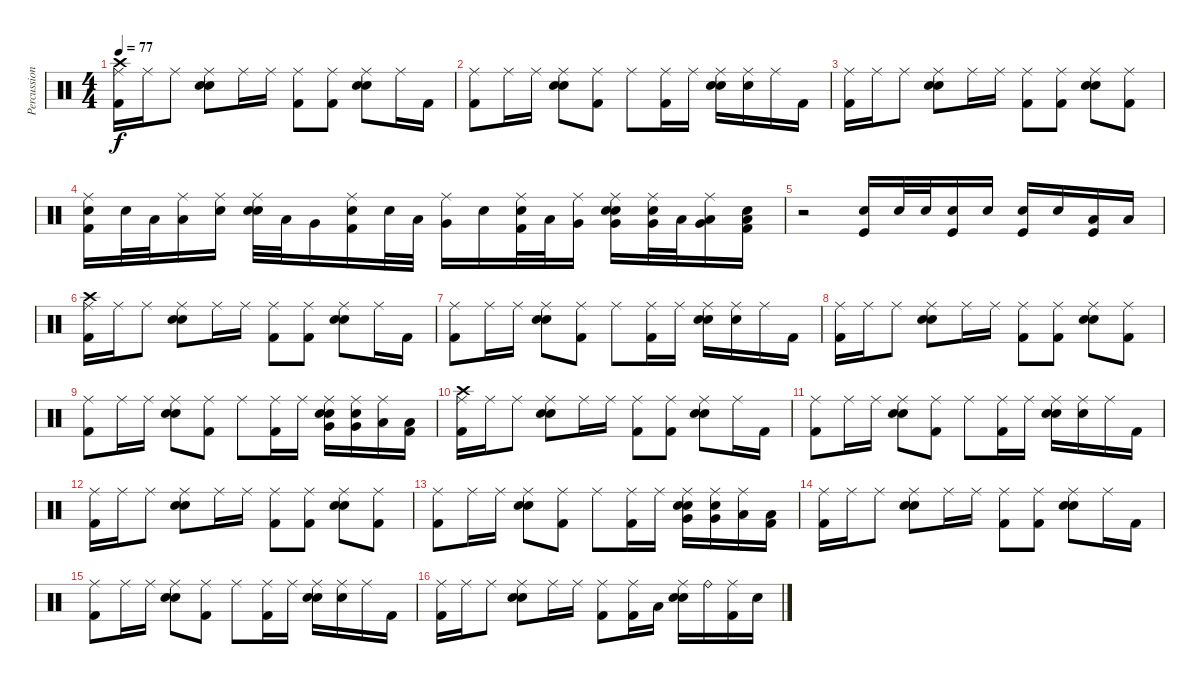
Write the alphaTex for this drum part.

\track ("Percussion" "Percussion") {instrument percussion}
\staff {score}
\articulation defaults
\ts (4 4)
\tempo 77
\clef neutral
\ks c
("Kick (hit) 2" "Crash high (hit)" "Ride (middle)").16{dy f} "Ride (middle)".16 "Ride (middle)".8 ("Metronome (bell)" "Electric Snare (hit)" "Ride (middle)").8 "Ride (middle)".16 "Ride (middle)".16 ("Kick (hit) 2" "Ride (middle)").8 ("Kick (hit) 2" "Ride (middle)").8 ("Metronome (bell)" "Electric Snare (hit)" "Ride (middle)").8 "Ride (middle)".16 "Kick (hit) 2".16 |
("Kick (hit) 2" "Ride (middle)").8 "Ride (middle)".16 "Ride (middle)".16 ("Metronome (bell)" "Electric Snare (hit)" "Ride (middle)").8 ("Kick (hit) 2" "Ride (middle)").8 "Ride (middle)".8 ("Kick (hit) 2" "Ride (middle)").16 "Ride (middle)".16 ("Metronome (bell)" "Electric Snare (hit)" "Ride (middle)").16 ("Electric Snare (hit)" "Ride (middle)").16 "Ride (middle)".16 "Kick (hit) 2".16 |
("Kick (hit) 2" "Ride (middle)").16 "Ride (middle)".16 "Ride (middle)".8 ("Metronome (bell)" "Electric Snare (hit)" "Ride (middle)").8 "Ride (middle)".16 "Ride (middle)".16 ("Kick (hit) 2" "Ride (middle)").8 ("Kick (hit) 2" "Ride (middle)").8 ("Metronome (bell)" "Electric Snare (hit)" "Ride (middle)").8 ("Kick (hit) 2" "Ride (middle)").8 |
("Kick (hit) 2" "Electric Snare (hit)" "Ride (middle)").16 "Snare (hit) 2".32 "Low Tom (hit)".32 ("Low Floor Tom (hit)" "Ride (middle)").16 ("Electric Snare (hit)" "Ride (middle)").16 ("Metronome (bell)" "Snare (hit) 2" "Ride (middle)").32 "Low Tom (hit)".32 "Very Low Tom (hit)".16 ("Kick (hit) 2" "Electric Snare (hit)" "Ride (middle)").16 "Electric Snare (hit)".32 "Low Tom (hit)".32 ("Very Low Tom (hit)" "Ride (middle)").16 "Electric Snare (hit)".16 ("Kick (hit) 2" "Snare (hit) 2" "Ride (middle)").32 "Low Tom (hit)".32 ("Very Low Tom (hit)" "Ride (middle)").16 ("Metronome (bell)" "Electric Snare (hit)" "Very Low Tom (hit)" "Ride (middle)").16 ("Snare (hit) 2" "Very Low Tom (hit)" "Ride (middle)").32 "Low Tom (hit)".32 ("Low Floor Tom (hit)" "Very Low Tom (hit)" "Ride (middle)").16 ("Kick (hit) 2" "Electric Snare (hit)" "Low Floor Tom (hit)").16 |
r.2 ("Kick (hit)" "Electric Snare (hit)").16 "Snare (hit) 2".32 "Snare (hit) 2".32 ("Kick (hit)" "Snare (hit) 2").16 "Electric Snare (hit)".16 ("Kick (hit)" "Snare (hit) 2").16 "Snare (hit) 2".16 ("Kick (hit)" "Low Tom (hit)").16 "Low Tom (hit)".16 |
("Kick (hit) 2" "Crash high (hit)" "Ride (middle)").16 "Ride (middle)".16 "Ride (middle)".8 ("Metronome (bell)" "Electric Snare (hit)" "Ride (middle)").8 "Ride (middle)".16 "Ride (middle)".16 ("Kick (hit) 2" "Ride (middle)").8 ("Kick (hit) 2" "Ride (middle)").8 ("Metronome (bell)" "Electric Snare (hit)" "Ride (middle)").8 "Ride (middle)".16 "Kick (hit) 2".16 |
("Kick (hit) 2" "Ride (middle)").8 "Ride (middle)".16 "Ride (middle)".16 ("Metronome (bell)" "Electric Snare (hit)" "Ride (middle)").8 ("Kick (hit) 2" "Ride (middle)").8 "Ride (middle)".8 ("Kick (hit) 2" "Ride (middle)").16 "Ride (middle)".16 ("Metronome (bell)" "Electric Snare (hit)" "Ride (middle)").16 ("Electric Snare (hit)" "Ride (middle)").16 "Ride (middle)".16 "Kick (hit) 2".16 |
("Kick (hit) 2" "Ride (middle)").16 "Ride (middle)".16 "Ride (middle)".8 ("Metronome (bell)" "Electric Snare (hit)" "Ride (middle)").8 "Ride (middle)".16 "Ride (middle)".16 ("Kick (hit) 2" "Ride (middle)").8 ("Kick (hit) 2" "Ride (middle)").8 ("Metronome (bell)" "Electric Snare (hit)" "Ride (middle)").8 ("Kick (hit) 2" "Ride (middle)").8 |
("Kick (hit) 2" "Ride (middle)").8 "Ride (middle)".16 "Ride (middle)".16 ("Metronome (bell)" "Electric Snare (hit)" "Ride (middle)").8 ("Kick (hit) 2" "Ride (middle)").8 "Ride (middle)".8 ("Kick (hit) 2" "Ride (middle)").16 "Ride (middle)".16 ("Metronome (bell)" "Electric Snare (hit)" "Very Low Tom (hit)" "Ride (middle)").16 ("Electric Snare (hit)" "Very Low Tom (hit)" "Ride (middle)").16 ("Low Floor Tom (hit)" "Ride (middle)").16 ("Kick (hit) 2" "Low Floor Tom (hit)").16 |
("Kick (hit) 2" "Crash high (hit)" "Ride (middle)").16 "Ride (middle)".16 "Ride (middle)".8 ("Metronome (bell)" "Electric Snare (hit)" "Ride (middle)").8 "Ride (middle)".16 "Ride (middle)".16 ("Kick (hit) 2" "Ride (middle)").8 ("Kick (hit) 2" "Ride (middle)").8 ("Metronome (bell)" "Electric Snare (hit)" "Ride (middle)").8 "Ride (middle)".16 "Kick (hit) 2".16 |
("Kick (hit) 2" "Ride (middle)").8 "Ride (middle)".16 "Ride (middle)".16 ("Metronome (bell)" "Electric Snare (hit)" "Ride (middle)").8 ("Kick (hit) 2" "Ride (middle)").8 "Ride (middle)".8 ("Kick (hit) 2" "Ride (middle)").16 "Ride (middle)".16 ("Metronome (bell)" "Electric Snare (hit)" "Ride (middle)").16 ("Electric Snare (hit)" "Ride (middle)").16 "Ride (middle)".16 "Kick (hit) 2".16 |
("Kick (hit) 2" "Ride (middle)").16 "Ride (middle)".16 "Ride (middle)".8 ("Metronome (bell)" "Electric Snare (hit)" "Ride (middle)").8 "Ride (middle)".16 "Ride (middle)".16 ("Kick (hit) 2" "Ride (middle)").8 ("Kick (hit) 2" "Ride (middle)").8 ("Metronome (bell)" "Electric Snare (hit)" "Ride (middle)").8 ("Kick (hit) 2" "Ride (middle)").8 |
("Kick (hit) 2" "Ride (middle)").8 "Ride (middle)".16 "Ride (middle)".16 ("Metronome (bell)" "Electric Snare (hit)" "Ride (middle)").8 ("Kick (hit) 2" "Ride (middle)").8 "Ride (middle)".8 ("Kick (hit) 2" "Ride (middle)").16 "Ride (middle)".16 ("Metronome (bell)" "Electric Snare (hit)" "Very Low Tom (hit)" "Ride (middle)").16 ("Electric Snare (hit)" "Very Low Tom (hit)" "Ride (middle)").16 ("Low Floor Tom (hit)" "Ride (middle)").16 ("Kick (hit) 2" "Low Floor Tom (hit)").16 |
("Kick (hit) 2" "Ride (middle)").16 "Ride (middle)".16 "Ride (middle)".8 ("Metronome (bell)" "Electric Snare (hit)" "Ride (middle)").8 "Ride (middle)".16 "Ride (middle)".16 ("Kick (hit) 2" "Ride (middle)").8 ("Kick (hit) 2" "Ride (middle)").8 ("Metronome (bell)" "Electric Snare (hit)" "Ride (middle)").8 "Ride (middle)".16 "Kick (hit) 2".16 |
("Kick (hit) 2" "Ride (middle)").8 "Ride (middle)".16 "Ride (middle)".16 ("Metronome (bell)" "Electric Snare (hit)" "Ride (middle)").8 ("Kick (hit) 2" "Ride (middle)").8 "Ride (middle)".8 ("Kick (hit) 2" "Ride (middle)").16 "Ride (middle)".16 ("Metronome (bell)" "Electric Snare (hit)" "Ride (middle)").16 ("Electric Snare (hit)" "Ride (middle)").16 "Ride (middle)".16 "Kick (hit) 2".16 |
("Kick (hit) 2" "Ride (middle)").16 "Ride (middle)".16 "Ride (middle)".8 ("Metronome (bell)" "Electric Snare (hit)" "Ride (middle)").8 "Ride (middle)".16 "Ride (middle)".16 ("Kick (hit) 2" "Ride (middle)").8 ("Kick (hit) 2" "Ride (middle)").16 "Low Tom (hit)".16 ("Metronome (bell)" "Electric Snare (hit)" "Ride (middle)").16 "Ride (bell)".16 ("Kick (hit) 2" "Ride (middle)").16 "Electric Snare (hit)".16
